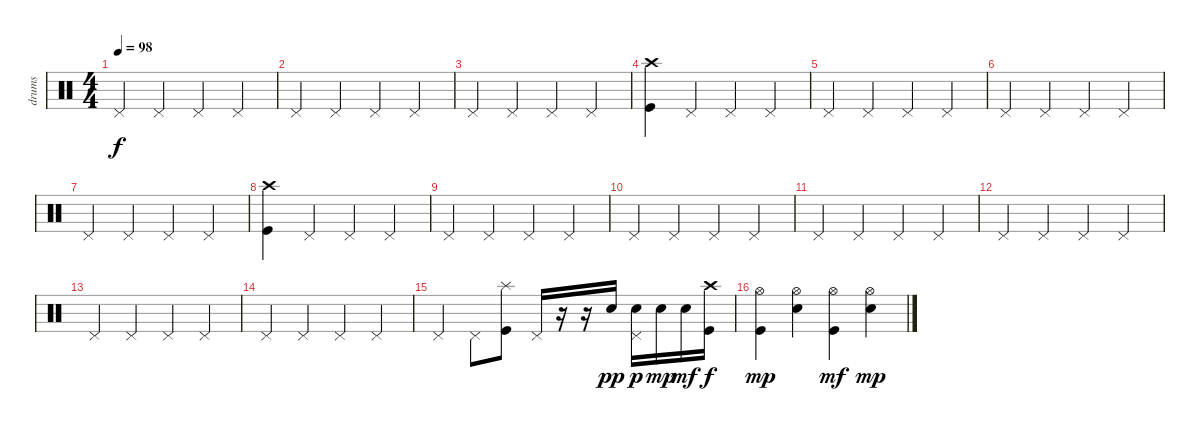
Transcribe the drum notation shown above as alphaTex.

\track ("drums" "drums") {instrument percussion}
\staff {score}
\articulation defaults
\ts (4 4)
\tempo 98
\clef neutral
\ks c "Pedal Hi-Hat (hit)".4{dy f} "Pedal Hi-Hat (hit)".4 "Pedal Hi-Hat (hit)".4 "Pedal Hi-Hat (hit)".4
|
"Pedal Hi-Hat (hit)".4 "Pedal Hi-Hat (hit)".4 "Pedal Hi-Hat (hit)".4 "Pedal Hi-Hat (hit)".4 |
"Pedal Hi-Hat (hit)".4 "Pedal Hi-Hat (hit)".4 "Pedal Hi-Hat (hit)".4 "Pedal Hi-Hat (hit)".4 |
("Crash high (hit)" "Kick (hit)").4 "Pedal Hi-Hat (hit)".4 "Pedal Hi-Hat (hit)".4 "Pedal Hi-Hat (hit)".4 |
"Pedal Hi-Hat (hit)".4 "Pedal Hi-Hat (hit)".4 "Pedal Hi-Hat (hit)".4 "Pedal Hi-Hat (hit)".4 |
"Pedal Hi-Hat (hit)".4 "Pedal Hi-Hat (hit)".4 "Pedal Hi-Hat (hit)".4 "Pedal Hi-Hat (hit)".4 |
"Pedal Hi-Hat (hit)".4 "Pedal Hi-Hat (hit)".4 "Pedal Hi-Hat (hit)".4 "Pedal Hi-Hat (hit)".4 |
("Crash high (hit)" "Kick (hit)").4 "Pedal Hi-Hat (hit)".4 "Pedal Hi-Hat (hit)".4 "Pedal Hi-Hat (hit)".4 |
"Pedal Hi-Hat (hit)".4 "Pedal Hi-Hat (hit)".4 "Pedal Hi-Hat (hit)".4 "Pedal Hi-Hat (hit)".4 |
"Pedal Hi-Hat (hit)".4 "Pedal Hi-Hat (hit)".4 "Pedal Hi-Hat (hit)".4 "Pedal Hi-Hat (hit)".4 |
"Pedal Hi-Hat (hit)".4 "Pedal Hi-Hat (hit)".4 "Pedal Hi-Hat (hit)".4 "Pedal Hi-Hat (hit)".4 |
"Pedal Hi-Hat (hit)".4 "Pedal Hi-Hat (hit)".4 "Pedal Hi-Hat (hit)".4 "Pedal Hi-Hat (hit)".4 |
"Pedal Hi-Hat (hit)".4 "Pedal Hi-Hat (hit)".4 "Pedal Hi-Hat (hit)".4 "Pedal Hi-Hat (hit)".4 |
"Pedal Hi-Hat (hit)".4 "Pedal Hi-Hat (hit)".4 "Pedal Hi-Hat (hit)".4 "Pedal Hi-Hat (hit)".4 |
"Pedal Hi-Hat (hit)".4 "Pedal Hi-Hat (hit)".8 ("Splash (hit)" "Kick (hit)").8 "Pedal Hi-Hat (hit)".16 r.16 r.16 "Electric Snare (hit)".16{dy pp} ("Electric Snare (hit)" "Pedal Hi-Hat (hit)").16{dy p} "Electric Snare (hit)".16{dy mp} "Electric Snare (hit)".16{dy mf} ("Crash high (hit)" "Kick (hit)").16{dy f} |
("Hi-Hat (open)" "Kick (hit)").4{dy mp} ("Hi-Hat (open)" "Electric Snare (hit)").4 ("Hi-Hat (open)" "Kick (hit)").4{dy mf} ("Hi-Hat (open)" "Electric Snare (hit)").4{dy mp}
